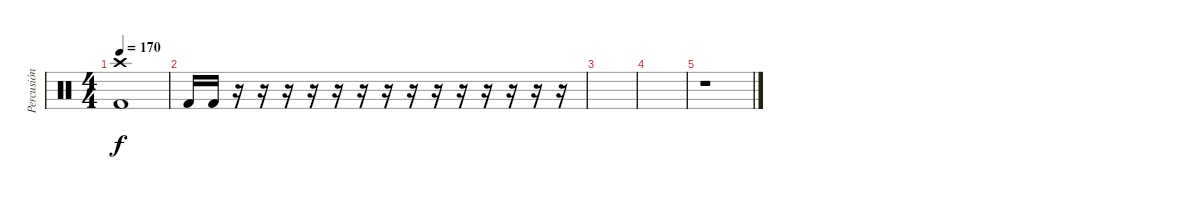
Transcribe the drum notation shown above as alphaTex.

\track ("Percusión" "Percusión") {instrument percussion}
\staff {score}
\articulation defaults
\ts (4 4)
\tempo 170
\clef neutral
\ks c
("Crash high (hit)" "Kick (hit) 2").1{dy f} |
"Kick (hit) 2".16 "Kick (hit) 2".16 r.16 r.16 r.16 r.16 r.16 r.16 r.16 r.16 r.16 r.16 r.16 r.16 r.16 r.16 |
|
|
r.1
